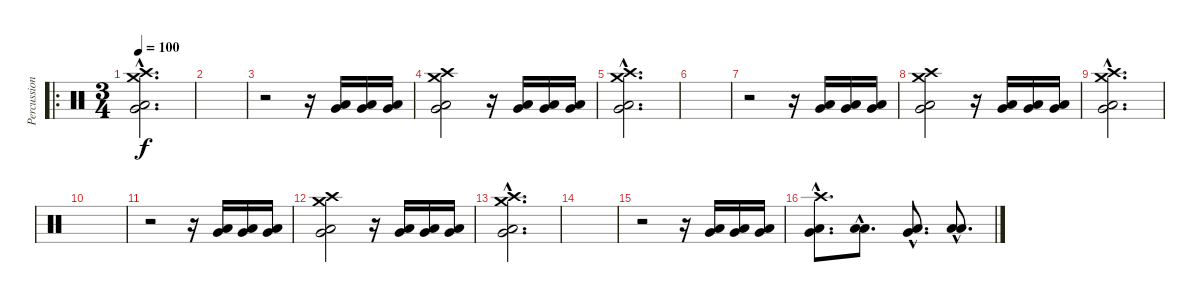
\track ("Percussion" "Percussion") {instrument percussion}
\staff {score}
\articulation defaults
\ro
\ts (3 4)
\tempo 100
\clef neutral
\ks c
("Crash high (hit)"{hac} "Crash medium (hit)"{hac} "Very Low Tom (hit)"{hac} "Low Floor Tom (hit)"{hac}).2{d dy f} |
|
r.2 r.16 ("Low Floor Tom (hit)" "Very Low Tom (hit)").16 ("Low Floor Tom (hit)" "Very Low Tom (hit)").16 ("Low Floor Tom (hit)" "Very Low Tom (hit)").16 |
("Crash medium (hit)" "Crash high (hit)" "Low Floor Tom (hit)" "Very Low Tom (hit)").2 r.16 ("Low Floor Tom (hit)" "Very Low Tom (hit)").16 ("Low Floor Tom (hit)" "Very Low Tom (hit)").16 ("Low Floor Tom (hit)" "Very Low Tom (hit)").16 |
("Crash high (hit)"{hac} "Crash medium (hit)"{hac} "Very Low Tom (hit)"{hac} "Low Floor Tom (hit)"{hac}).2{d} |
|
r.2 r.16 ("Low Floor Tom (hit)" "Very Low Tom (hit)").16 ("Low Floor Tom (hit)" "Very Low Tom (hit)").16 ("Low Floor Tom (hit)" "Very Low Tom (hit)").16 |
("Crash medium (hit)" "Crash high (hit)" "Low Floor Tom (hit)" "Very Low Tom (hit)").2 r.16 ("Low Floor Tom (hit)" "Very Low Tom (hit)").16 ("Low Floor Tom (hit)" "Very Low Tom (hit)").16 ("Low Floor Tom (hit)" "Very Low Tom (hit)").16 |
("Crash high (hit)"{hac} "Crash medium (hit)"{hac} "Very Low Tom (hit)"{hac} "Low Floor Tom (hit)"{hac}).2{d} |
|
r.2 r.16 ("Low Floor Tom (hit)" "Very Low Tom (hit)").16 ("Low Floor Tom (hit)" "Very Low Tom (hit)").16 ("Low Floor Tom (hit)" "Very Low Tom (hit)").16 |
("Crash medium (hit)" "Crash high (hit)" "Low Floor Tom (hit)" "Very Low Tom (hit)").2 r.16 ("Low Floor Tom (hit)" "Very Low Tom (hit)").16 ("Low Floor Tom (hit)" "Very Low Tom (hit)").16 ("Low Floor Tom (hit)" "Very Low Tom (hit)").16 |
("Crash high (hit)"{hac} "Crash medium (hit)"{hac} "Very Low Tom (hit)"{hac} "Low Floor Tom (hit)"{hac}).2{d} |
|
r.2 r.16 ("Low Floor Tom (hit)" "Very Low Tom (hit)").16 ("Low Floor Tom (hit)" "Very Low Tom (hit)").16 ("Low Floor Tom (hit)" "Very Low Tom (hit)").16 |
("Crash high (hit)"{hac} "Low Floor Tom (hit)"{hac} "Very Low Tom (hit)"{hac}).8{d} ("Low Tom (hit)"{hac} "Low Floor Tom (hit)"{hac}).8{d} ("Very Low Tom (hit)"{hac} "Low Floor Tom (hit)"{hac}).8{d} ("Low Floor Tom (hit)"{hac} "Low Floor Tom (hit)"{hac}).8{d}
